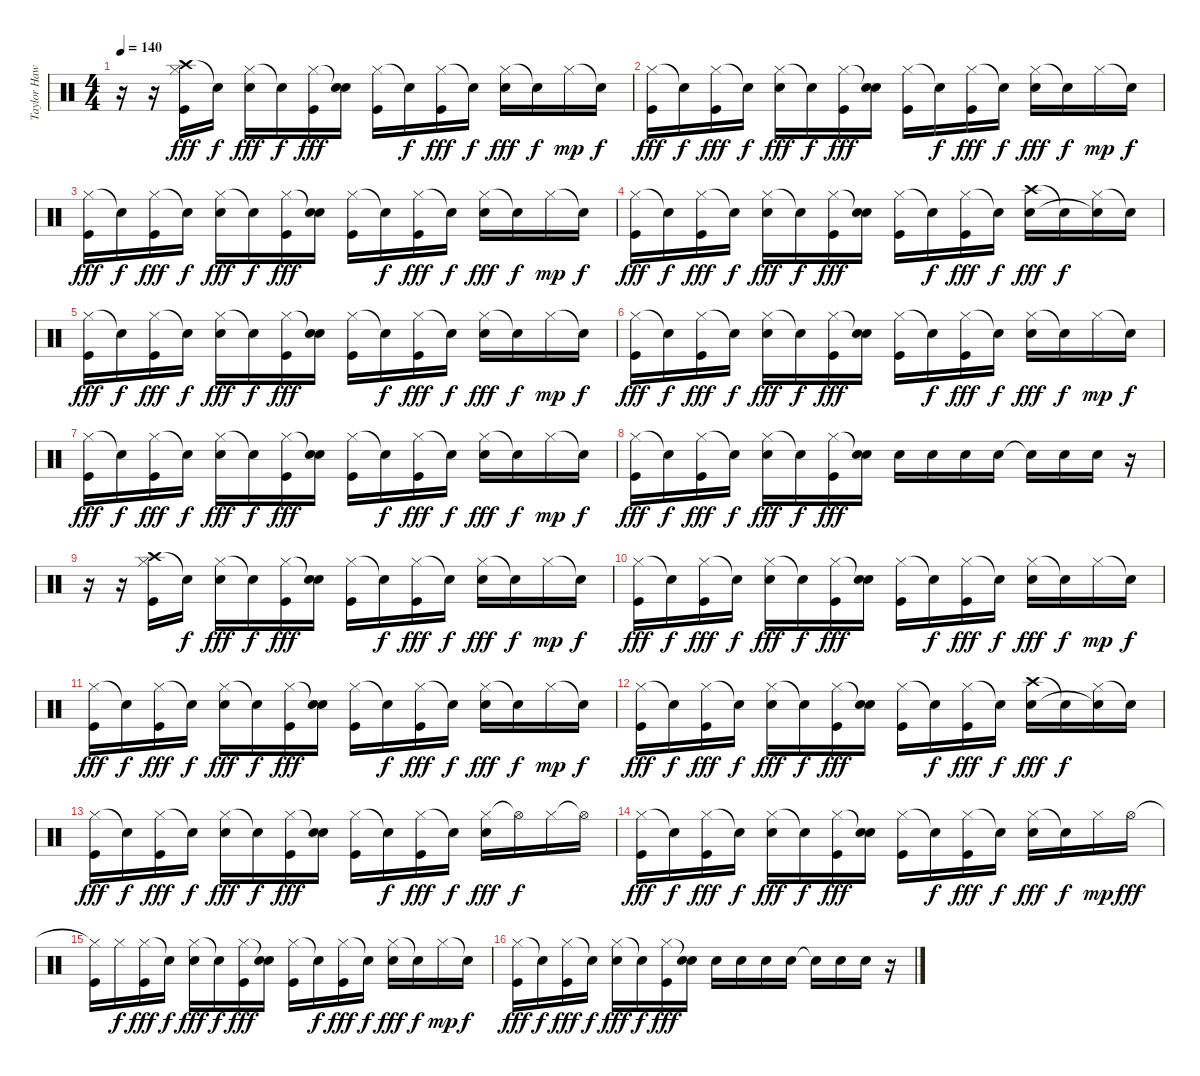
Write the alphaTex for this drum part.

\track ("Taylor Hawkings (Batería)" "Taylor Haw") {instrument percussion}
\staff {score}
\articulation defaults
\ts (4 4)
\tempo 140
\clef neutral
\ks c
r.16{dy fff} r.16 ("Crash high (hit)" "Hi-Hat (closed)" "Kick (hit)").16 "Snare (hit)"{t}.16{dy f} ("Hi-Hat (closed)" "Electric Snare (hit)").16{dy fff} "Snare (hit)"{t}.16{dy f} ("Hi-Hat (closed)" "Kick (hit)").16{dy fff} ("Snare (hit)"{t} "Electric Snare (hit)").16 ("Hi-Hat (closed)" "Kick (hit)").16 "Snare (hit)"{t}.16{dy f} ("Hi-Hat (closed)" "Kick (hit)").16{dy fff} "Snare (hit)"{t}.16{dy f} ("Hi-Hat (closed)" "Electric Snare (hit)").16{dy fff} "Snare (hit)"{t}.16{dy f} "Hi-Hat (closed)".16{dy mp} "Snare (hit)"{t}.16{dy f} |
("Hi-Hat (closed)" "Kick (hit)").16{dy fff} "Snare (hit)"{t}.16{dy f} ("Hi-Hat (closed)" "Kick (hit)").16{dy fff} "Snare (hit)"{t}.16{dy f} ("Hi-Hat (closed)" "Electric Snare (hit)").16{dy fff} "Snare (hit)"{t}.16{dy f} ("Hi-Hat (closed)" "Kick (hit)").16{dy fff} ("Snare (hit)"{t} "Electric Snare (hit)").16 ("Hi-Hat (closed)" "Kick (hit)").16 "Snare (hit)"{t}.16{dy f} ("Hi-Hat (closed)" "Kick (hit)").16{dy fff} "Snare (hit)"{t}.16{dy f} ("Hi-Hat (closed)" "Electric Snare (hit)").16{dy fff} "Snare (hit)"{t}.16{dy f} "Hi-Hat (closed)".16{dy mp} "Snare (hit)"{t}.16{dy f} |
("Hi-Hat (closed)" "Kick (hit)").16{dy fff} "Snare (hit)"{t}.16{dy f} ("Hi-Hat (closed)" "Kick (hit)").16{dy fff} "Snare (hit)"{t}.16{dy f} ("Hi-Hat (closed)" "Electric Snare (hit)").16{dy fff} "Snare (hit)"{t}.16{dy f} ("Hi-Hat (closed)" "Kick (hit)").16{dy fff} ("Snare (hit)"{t} "Electric Snare (hit)").16 ("Hi-Hat (closed)" "Kick (hit)").16 "Snare (hit)"{t}.16{dy f} ("Hi-Hat (closed)" "Kick (hit)").16{dy fff} "Snare (hit)"{t}.16{dy f} ("Hi-Hat (closed)" "Electric Snare (hit)").16{dy fff} "Snare (hit)"{t}.16{dy f} "Hi-Hat (closed)".16{dy mp} "Snare (hit)"{t}.16{dy f} |
("Hi-Hat (closed)" "Kick (hit)").16{dy fff} "Snare (hit)"{t}.16{dy f} ("Hi-Hat (closed)" "Kick (hit)").16{dy fff} "Snare (hit)"{t}.16{dy f} ("Hi-Hat (closed)" "Electric Snare (hit)").16{dy fff} "Snare (hit)"{t}.16{dy f} ("Hi-Hat (closed)" "Kick (hit)").16{dy fff} ("Snare (hit)"{t} "Electric Snare (hit)").16 ("Hi-Hat (closed)" "Kick (hit)").16 "Snare (hit)"{t}.16{dy f} ("Hi-Hat (closed)" "Kick (hit)").16{dy fff} "Snare (hit)"{t}.16{dy f} ("Crash high (hit)" "Electric Snare (hit)").16{dy fff} "Snare (hit)"{t}.16{dy f} ("Hi-Hat (closed)" "Snare (hit)"{t}).16 "Snare (hit)"{t}.16 |
("Hi-Hat (closed)" "Kick (hit)").16{dy fff} "Snare (hit)"{t}.16{dy f} ("Hi-Hat (closed)" "Kick (hit)").16{dy fff} "Snare (hit)"{t}.16{dy f} ("Hi-Hat (closed)" "Electric Snare (hit)").16{dy fff} "Snare (hit)"{t}.16{dy f} ("Hi-Hat (closed)" "Kick (hit)").16{dy fff} ("Snare (hit)"{t} "Electric Snare (hit)").16 ("Hi-Hat (closed)" "Kick (hit)").16 "Snare (hit)"{t}.16{dy f} ("Hi-Hat (closed)" "Kick (hit)").16{dy fff} "Snare (hit)"{t}.16{dy f} ("Hi-Hat (closed)" "Electric Snare (hit)").16{dy fff} "Snare (hit)"{t}.16{dy f} "Hi-Hat (closed)".16{dy mp} "Snare (hit)"{t}.16{dy f} |
("Hi-Hat (closed)" "Kick (hit)").16{dy fff} "Snare (hit)"{t}.16{dy f} ("Hi-Hat (closed)" "Kick (hit)").16{dy fff} "Snare (hit)"{t}.16{dy f} ("Hi-Hat (closed)" "Electric Snare (hit)").16{dy fff} "Snare (hit)"{t}.16{dy f} ("Hi-Hat (closed)" "Kick (hit)").16{dy fff} ("Snare (hit)"{t} "Electric Snare (hit)").16 ("Hi-Hat (closed)" "Kick (hit)").16 "Snare (hit)"{t}.16{dy f} ("Hi-Hat (closed)" "Kick (hit)").16{dy fff} "Snare (hit)"{t}.16{dy f} ("Hi-Hat (closed)" "Electric Snare (hit)").16{dy fff} "Snare (hit)"{t}.16{dy f} "Hi-Hat (closed)".16{dy mp} "Snare (hit)"{t}.16{dy f} |
("Hi-Hat (closed)" "Kick (hit)").16{dy fff} "Snare (hit)"{t}.16{dy f} ("Hi-Hat (closed)" "Kick (hit)").16{dy fff} "Snare (hit)"{t}.16{dy f} ("Hi-Hat (closed)" "Electric Snare (hit)").16{dy fff} "Snare (hit)"{t}.16{dy f} ("Hi-Hat (closed)" "Kick (hit)").16{dy fff} ("Snare (hit)"{t} "Electric Snare (hit)").16 ("Hi-Hat (closed)" "Kick (hit)").16 "Snare (hit)"{t}.16{dy f} ("Hi-Hat (closed)" "Kick (hit)").16{dy fff} "Snare (hit)"{t}.16{dy f} ("Hi-Hat (closed)" "Electric Snare (hit)").16{dy fff} "Snare (hit)"{t}.16{dy f} "Hi-Hat (closed)".16{dy mp} "Snare (hit)"{t}.16{dy f} |
("Hi-Hat (closed)" "Kick (hit)").16{dy fff} "Snare (hit)"{t}.16{dy f} ("Hi-Hat (closed)" "Kick (hit)").16{dy fff} "Snare (hit)"{t}.16{dy f} ("Hi-Hat (closed)" "Electric Snare (hit)").16{dy fff} "Snare (hit)"{t}.16{dy f} ("Hi-Hat (closed)" "Kick (hit)").16{dy fff} ("Snare (hit)"{t} "Electric Snare (hit)").16 "Electric Snare (hit)".16 "Electric Snare (hit)".16 "Electric Snare (hit)".16 "Electric Snare (hit)".16 "Snare (hit)"{t}.16 "Electric Snare (hit)".16 "Electric Snare (hit)".16 r.16 |
r.16 r.16 ("Crash high (hit)" "Hi-Hat (closed)" "Kick (hit)").16 "Snare (hit)"{t}.16{dy f} ("Hi-Hat (closed)" "Electric Snare (hit)").16{dy fff} "Snare (hit)"{t}.16{dy f} ("Hi-Hat (closed)" "Kick (hit)").16{dy fff} ("Snare (hit)"{t} "Electric Snare (hit)").16 ("Hi-Hat (closed)" "Kick (hit)").16 "Snare (hit)"{t}.16{dy f} ("Hi-Hat (closed)" "Kick (hit)").16{dy fff} "Snare (hit)"{t}.16{dy f} ("Hi-Hat (closed)" "Electric Snare (hit)").16{dy fff} "Snare (hit)"{t}.16{dy f} "Hi-Hat (closed)".16{dy mp} "Snare (hit)"{t}.16{dy f} |
("Hi-Hat (closed)" "Kick (hit)").16{dy fff} "Snare (hit)"{t}.16{dy f} ("Hi-Hat (closed)" "Kick (hit)").16{dy fff} "Snare (hit)"{t}.16{dy f} ("Hi-Hat (closed)" "Electric Snare (hit)").16{dy fff} "Snare (hit)"{t}.16{dy f} ("Hi-Hat (closed)" "Kick (hit)").16{dy fff} ("Snare (hit)"{t} "Electric Snare (hit)").16 ("Hi-Hat (closed)" "Kick (hit)").16 "Snare (hit)"{t}.16{dy f} ("Hi-Hat (closed)" "Kick (hit)").16{dy fff} "Snare (hit)"{t}.16{dy f} ("Hi-Hat (closed)" "Electric Snare (hit)").16{dy fff} "Snare (hit)"{t}.16{dy f} "Hi-Hat (closed)".16{dy mp} "Snare (hit)"{t}.16{dy f} |
("Hi-Hat (closed)" "Kick (hit)").16{dy fff} "Snare (hit)"{t}.16{dy f} ("Hi-Hat (closed)" "Kick (hit)").16{dy fff} "Snare (hit)"{t}.16{dy f} ("Hi-Hat (closed)" "Electric Snare (hit)").16{dy fff} "Snare (hit)"{t}.16{dy f} ("Hi-Hat (closed)" "Kick (hit)").16{dy fff} ("Snare (hit)"{t} "Electric Snare (hit)").16 ("Hi-Hat (closed)" "Kick (hit)").16 "Snare (hit)"{t}.16{dy f} ("Hi-Hat (closed)" "Kick (hit)").16{dy fff} "Snare (hit)"{t}.16{dy f} ("Hi-Hat (closed)" "Electric Snare (hit)").16{dy fff} "Snare (hit)"{t}.16{dy f} "Hi-Hat (closed)".16{dy mp} "Snare (hit)"{t}.16{dy f} |
("Hi-Hat (closed)" "Kick (hit)").16{dy fff} "Snare (hit)"{t}.16{dy f} ("Hi-Hat (closed)" "Kick (hit)").16{dy fff} "Snare (hit)"{t}.16{dy f} ("Hi-Hat (closed)" "Electric Snare (hit)").16{dy fff} "Snare (hit)"{t}.16{dy f} ("Hi-Hat (closed)" "Kick (hit)").16{dy fff} ("Snare (hit)"{t} "Electric Snare (hit)").16 ("Hi-Hat (closed)" "Kick (hit)").16 "Snare (hit)"{t}.16{dy f} ("Hi-Hat (closed)" "Kick (hit)").16{dy fff} "Snare (hit)"{t}.16{dy f} ("Crash high (hit)" "Electric Snare (hit)").16{dy fff} "Snare (hit)"{t}.16{dy f} ("Hi-Hat (closed)" "Snare (hit)"{t}).16 "Snare (hit)"{t}.16 |
("Hi-Hat (closed)" "Kick (hit)").16{dy fff} "Snare (hit)"{t}.16{dy f} ("Hi-Hat (closed)" "Kick (hit)").16{dy fff} "Snare (hit)"{t}.16{dy f} ("Hi-Hat (closed)" "Electric Snare (hit)").16{dy fff} "Snare (hit)"{t}.16{dy f} ("Hi-Hat (closed)" "Kick (hit)").16{dy fff} ("Snare (hit)"{t} "Electric Snare (hit)").16 ("Hi-Hat (closed)" "Kick (hit)").16 "Snare (hit)"{t}.16{dy f} ("Hi-Hat (closed)" "Kick (hit)").16{dy fff} "Snare (hit)"{t}.16{dy f} ("Hi-Hat (closed)" "Electric Snare (hit)").16{dy fff} "Hi-Hat (open)"{t}.16{dy f} "Hi-Hat (closed)".16 "Hi-Hat (open)"{t}.16 |
("Hi-Hat (closed)" "Kick (hit)").16{dy fff} "Snare (hit)"{t}.16{dy f} ("Hi-Hat (closed)" "Kick (hit)").16{dy fff} "Snare (hit)"{t}.16{dy f} ("Hi-Hat (closed)" "Electric Snare (hit)").16{dy fff} "Snare (hit)"{t}.16{dy f} ("Hi-Hat (closed)" "Kick (hit)").16{dy fff} ("Snare (hit)"{t} "Electric Snare (hit)").16 ("Hi-Hat (closed)" "Kick (hit)").16 "Snare (hit)"{t}.16{dy f} ("Hi-Hat (closed)" "Kick (hit)").16{dy fff} "Snare (hit)"{t}.16{dy f} ("Hi-Hat (closed)" "Electric Snare (hit)").16{dy fff} "Snare (hit)"{t}.16{dy f} "Hi-Hat (closed)".16{dy mp} "Hi-Hat (open)".16{dy fff} |
("Hi-Hat (closed)"{t} "Kick (hit)").16 "Hi-Hat (closed)".16{dy f} ("Hi-Hat (closed)" "Kick (hit)").16{dy fff} "Snare (hit)"{t}.16{dy f} ("Hi-Hat (closed)" "Electric Snare (hit)").16{dy fff} "Snare (hit)"{t}.16{dy f} ("Hi-Hat (closed)" "Kick (hit)").16{dy fff} ("Snare (hit)"{t} "Electric Snare (hit)").16 ("Hi-Hat (closed)" "Kick (hit)").16 "Snare (hit)"{t}.16{dy f} ("Hi-Hat (closed)" "Kick (hit)").16{dy fff} "Snare (hit)"{t}.16{dy f} ("Hi-Hat (closed)" "Electric Snare (hit)").16{dy fff} "Snare (hit)"{t}.16{dy f} "Hi-Hat (closed)".16{dy mp} "Snare (hit)"{t}.16{dy f} |
("Hi-Hat (closed)" "Kick (hit)").16{dy fff} "Snare (hit)"{t}.16{dy f} ("Hi-Hat (closed)" "Kick (hit)").16{dy fff} "Snare (hit)"{t}.16{dy f} ("Hi-Hat (closed)" "Electric Snare (hit)").16{dy fff} "Snare (hit)"{t}.16{dy f} ("Hi-Hat (closed)" "Kick (hit)").16{dy fff} ("Snare (hit)"{t} "Electric Snare (hit)").16 "Electric Snare (hit)".16 "Electric Snare (hit)".16 "Electric Snare (hit)".16 "Electric Snare (hit)".16 "Snare (hit)"{t}.16 "Electric Snare (hit)".16 "Electric Snare (hit)".16 r.16
